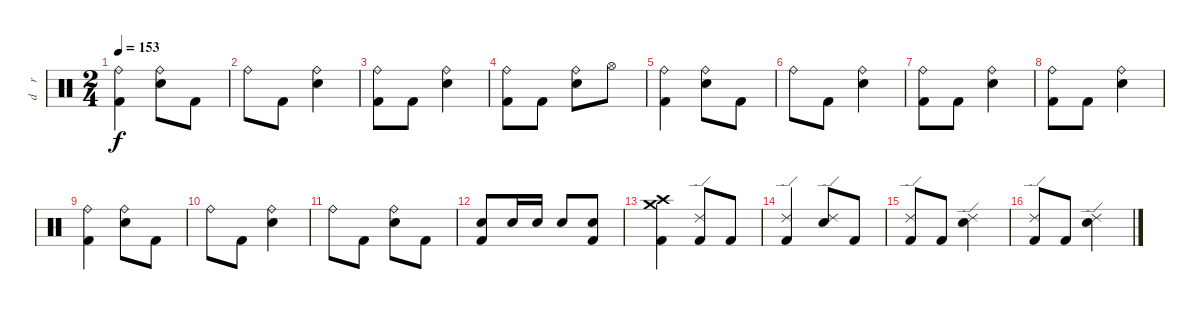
\track ("d    r     u    m    s" "d    r    ") {instrument percussion}
\staff {score}
\articulation defaults
\ts (2 4)
\tempo 153
\clef neutral
\ks c
("Ride (bell)" "Kick (hit) 2").4{dy f} ("Ride (bell)" "Electric Snare (hit)").8 "Kick (hit) 2".8 |
"Ride (bell)".8 "Kick (hit) 2".8 ("Ride (bell)" "Electric Snare (hit)").4 |
("Ride (bell)" "Kick (hit) 2").8 "Kick (hit) 2".8 ("Ride (bell)" "Electric Snare (hit)").4 |
("Ride (bell)" "Kick (hit) 2").8 "Kick (hit) 2".8 ("Ride (bell)" "Electric Snare (hit)").8 "Hi-Hat (open)".8 |
("Ride (bell)" "Kick (hit) 2").4 ("Ride (bell)" "Electric Snare (hit)").8 "Kick (hit) 2".8 |
"Ride (bell)".8 "Kick (hit) 2".8 ("Ride (bell)" "Electric Snare (hit)").4 |
("Ride (bell)" "Kick (hit) 2").8 "Kick (hit) 2".8 ("Ride (bell)" "Electric Snare (hit)").4 |
("Ride (bell)" "Kick (hit) 2").8 "Kick (hit) 2".8 ("Ride (bell)" "Electric Snare (hit)").4 |
("Ride (bell)" "Kick (hit) 2").4 ("Ride (bell)" "Electric Snare (hit)").8 "Kick (hit) 2".8 |
"Ride (bell)".8 "Kick (hit) 2".8 ("Ride (bell)" "Electric Snare (hit)").4 |
"Ride (bell)".8 "Kick (hit) 2".8 ("Ride (bell)" "Electric Snare (hit)").8 "Kick (hit) 2".8 |
("Electric Snare (hit)" "Kick (hit) 2").8 "Electric Snare (hit)".16 "Electric Snare (hit)".16 "Electric Snare (hit)".8 ("Electric Snare (hit)" "Kick (hit) 2").8 |
("Crash high (hit)" "Crash medium (hit)" "Kick (hit) 2").4 ("Ride (edge) 2" "Kick (hit) 2").8 "Kick (hit) 2".8 |
("Ride (edge) 2" "Kick (hit) 2").4 ("Ride (edge) 2" "Electric Snare (hit)").8 "Kick (hit) 2".8 |
("Ride (edge) 2" "Kick (hit) 2").8 "Kick (hit) 2".8 ("Ride (edge) 2" "Electric Snare (hit)").4 |
("Ride (edge) 2" "Kick (hit) 2").8 "Kick (hit) 2".8 ("Ride (edge) 2" "Electric Snare (hit)").4
